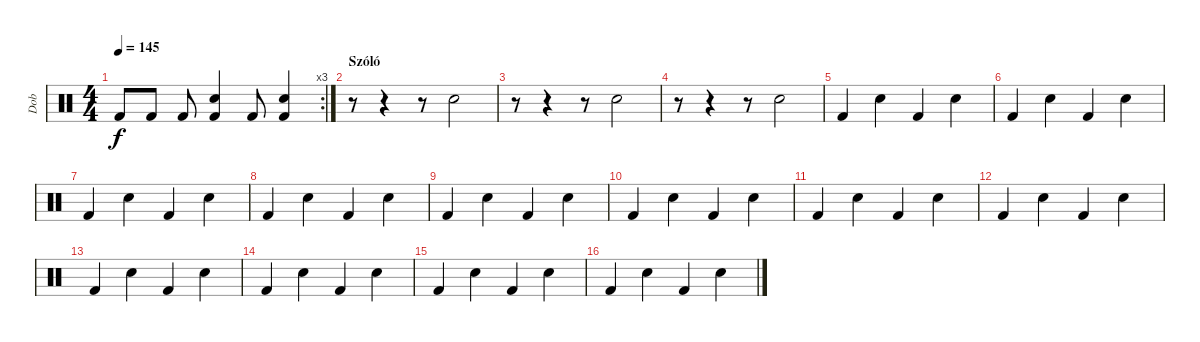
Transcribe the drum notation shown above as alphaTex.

\track ("Dob" "Dob") {instrument percussion}
\staff {score}
\articulation defaults
\rc 3
\ts (4 4)
\tempo 145
\clef neutral
\ks c "Kick (hit) 2".8{dy f} "Kick (hit) 2".8 "Kick (hit) 2".8
("Electric Snare (hit)" "Kick (hit) 2").4 "Kick (hit) 2".8 ("Electric Snare (hit)" "Kick (hit) 2").4 |
\section ("" "Szóló")
r.8 r.4 r.8 "Electric Snare (hit)".2 |
r.8 r.4 r.8 "Electric Snare (hit)".2 |
r.8 r.4 r.8 "Electric Snare (hit)".2 |
"Kick (hit) 2".4 "Electric Snare (hit)".4 "Kick (hit) 2".4 "Electric Snare (hit)".4 |
"Kick (hit) 2".4 "Electric Snare (hit)".4 "Kick (hit) 2".4 "Electric Snare (hit)".4 |
"Kick (hit) 2".4 "Electric Snare (hit)".4 "Kick (hit) 2".4 "Electric Snare (hit)".4 |
"Kick (hit) 2".4 "Electric Snare (hit)".4 "Kick (hit) 2".4 "Electric Snare (hit)".4 |
"Kick (hit) 2".4 "Electric Snare (hit)".4 "Kick (hit) 2".4 "Electric Snare (hit)".4 |
"Kick (hit) 2".4 "Electric Snare (hit)".4 "Kick (hit) 2".4 "Electric Snare (hit)".4 |
"Kick (hit) 2".4 "Electric Snare (hit)".4 "Kick (hit) 2".4 "Electric Snare (hit)".4 |
"Kick (hit) 2".4 "Electric Snare (hit)".4 "Kick (hit) 2".4 "Electric Snare (hit)".4 |
"Kick (hit) 2".4 "Electric Snare (hit)".4 "Kick (hit) 2".4 "Electric Snare (hit)".4 |
"Kick (hit) 2".4 "Electric Snare (hit)".4 "Kick (hit) 2".4 "Electric Snare (hit)".4 |
"Kick (hit) 2".4 "Electric Snare (hit)".4 "Kick (hit) 2".4 "Electric Snare (hit)".4 |
"Kick (hit) 2".4 "Electric Snare (hit)".4 "Kick (hit) 2".4 "Electric Snare (hit)".4
